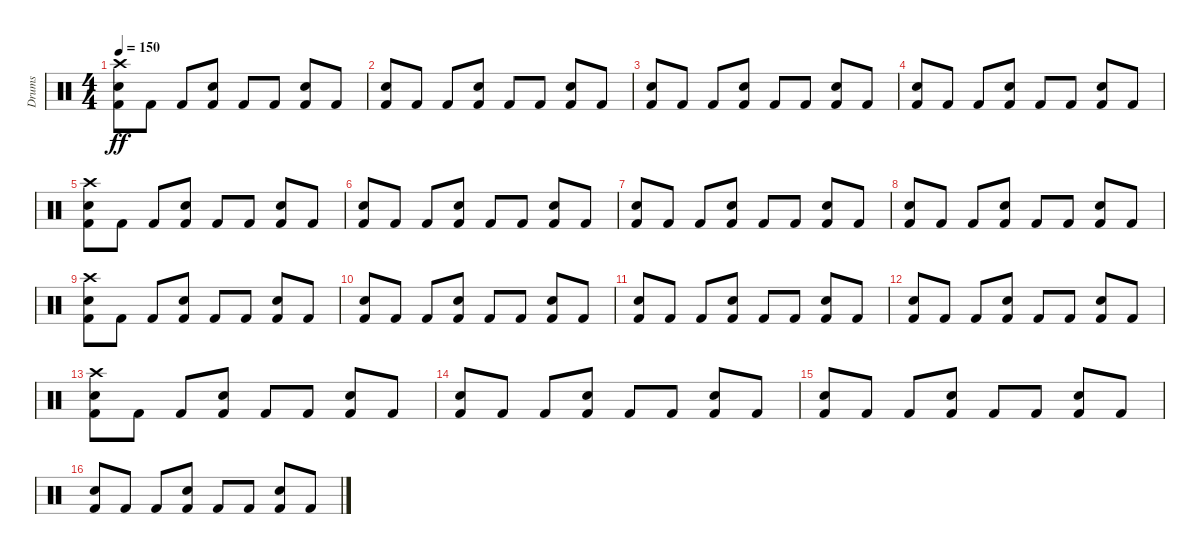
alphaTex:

\track ("Drums" "Drums") {instrument percussion}
\staff {score}
\articulation defaults
\ts (4 4)
\tempo 150
\clef neutral
\ks c
("Kick (hit) 2" "Snare (hit) 2" "Crash high (hit)").8{dy ff} "Kick (hit) 2".8 "Kick (hit) 2".8 ("Kick (hit) 2" "Snare (hit) 2").8 "Kick (hit) 2".8 "Kick (hit) 2".8 ("Kick (hit) 2" "Snare (hit) 2").8 "Kick (hit) 2".8 |
("Kick (hit) 2" "Snare (hit) 2").8 "Kick (hit) 2".8 "Kick (hit) 2".8 ("Kick (hit) 2" "Snare (hit) 2").8 "Kick (hit) 2".8 "Kick (hit) 2".8 ("Kick (hit) 2" "Snare (hit) 2").8 "Kick (hit) 2".8 |
("Kick (hit) 2" "Snare (hit) 2").8 "Kick (hit) 2".8 "Kick (hit) 2".8 ("Kick (hit) 2" "Snare (hit) 2").8 "Kick (hit) 2".8 "Kick (hit) 2".8 ("Kick (hit) 2" "Snare (hit) 2").8 "Kick (hit) 2".8 |
("Kick (hit) 2" "Snare (hit) 2").8 "Kick (hit) 2".8 "Kick (hit) 2".8 ("Kick (hit) 2" "Snare (hit) 2").8 "Kick (hit) 2".8 "Kick (hit) 2".8 ("Kick (hit) 2" "Snare (hit) 2").8 "Kick (hit) 2".8 |
("Kick (hit) 2" "Snare (hit) 2" "Crash high (hit)").8 "Kick (hit) 2".8 "Kick (hit) 2".8 ("Kick (hit) 2" "Snare (hit) 2").8 "Kick (hit) 2".8 "Kick (hit) 2".8 ("Kick (hit) 2" "Snare (hit) 2").8 "Kick (hit) 2".8 |
("Kick (hit) 2" "Snare (hit) 2").8 "Kick (hit) 2".8 "Kick (hit) 2".8 ("Kick (hit) 2" "Snare (hit) 2").8 "Kick (hit) 2".8 "Kick (hit) 2".8 ("Kick (hit) 2" "Snare (hit) 2").8 "Kick (hit) 2".8 |
("Kick (hit) 2" "Snare (hit) 2").8 "Kick (hit) 2".8 "Kick (hit) 2".8 ("Kick (hit) 2" "Snare (hit) 2").8 "Kick (hit) 2".8 "Kick (hit) 2".8 ("Kick (hit) 2" "Snare (hit) 2").8 "Kick (hit) 2".8 |
("Kick (hit) 2" "Snare (hit) 2").8 "Kick (hit) 2".8 "Kick (hit) 2".8 ("Kick (hit) 2" "Snare (hit) 2").8 "Kick (hit) 2".8 "Kick (hit) 2".8 ("Kick (hit) 2" "Snare (hit) 2").8 "Kick (hit) 2".8 |
("Kick (hit) 2" "Snare (hit) 2" "Crash high (hit)").8 "Kick (hit) 2".8 "Kick (hit) 2".8 ("Kick (hit) 2" "Snare (hit) 2").8 "Kick (hit) 2".8 "Kick (hit) 2".8 ("Kick (hit) 2" "Snare (hit) 2").8 "Kick (hit) 2".8 |
("Kick (hit) 2" "Snare (hit) 2").8 "Kick (hit) 2".8 "Kick (hit) 2".8 ("Kick (hit) 2" "Snare (hit) 2").8 "Kick (hit) 2".8 "Kick (hit) 2".8 ("Kick (hit) 2" "Snare (hit) 2").8 "Kick (hit) 2".8 |
("Kick (hit) 2" "Snare (hit) 2").8 "Kick (hit) 2".8 "Kick (hit) 2".8 ("Kick (hit) 2" "Snare (hit) 2").8 "Kick (hit) 2".8 "Kick (hit) 2".8 ("Kick (hit) 2" "Snare (hit) 2").8 "Kick (hit) 2".8 |
("Kick (hit) 2" "Snare (hit) 2").8 "Kick (hit) 2".8 "Kick (hit) 2".8 ("Kick (hit) 2" "Snare (hit) 2").8 "Kick (hit) 2".8 "Kick (hit) 2".8 ("Kick (hit) 2" "Snare (hit) 2").8 "Kick (hit) 2".8 |
("Kick (hit) 2" "Snare (hit) 2" "Crash high (hit)").8 "Kick (hit) 2".8 "Kick (hit) 2".8 ("Kick (hit) 2" "Snare (hit) 2").8 "Kick (hit) 2".8 "Kick (hit) 2".8 ("Kick (hit) 2" "Snare (hit) 2").8 "Kick (hit) 2".8 |
("Kick (hit) 2" "Snare (hit) 2").8 "Kick (hit) 2".8 "Kick (hit) 2".8 ("Kick (hit) 2" "Snare (hit) 2").8 "Kick (hit) 2".8 "Kick (hit) 2".8 ("Kick (hit) 2" "Snare (hit) 2").8 "Kick (hit) 2".8 |
("Kick (hit) 2" "Snare (hit) 2").8 "Kick (hit) 2".8 "Kick (hit) 2".8 ("Kick (hit) 2" "Snare (hit) 2").8 "Kick (hit) 2".8 "Kick (hit) 2".8 ("Kick (hit) 2" "Snare (hit) 2").8 "Kick (hit) 2".8 |
("Kick (hit) 2" "Snare (hit) 2").8 "Kick (hit) 2".8 "Kick (hit) 2".8 ("Kick (hit) 2" "Snare (hit) 2").8 "Kick (hit) 2".8 "Kick (hit) 2".8 ("Kick (hit) 2" "Snare (hit) 2").8 "Kick (hit) 2".8
